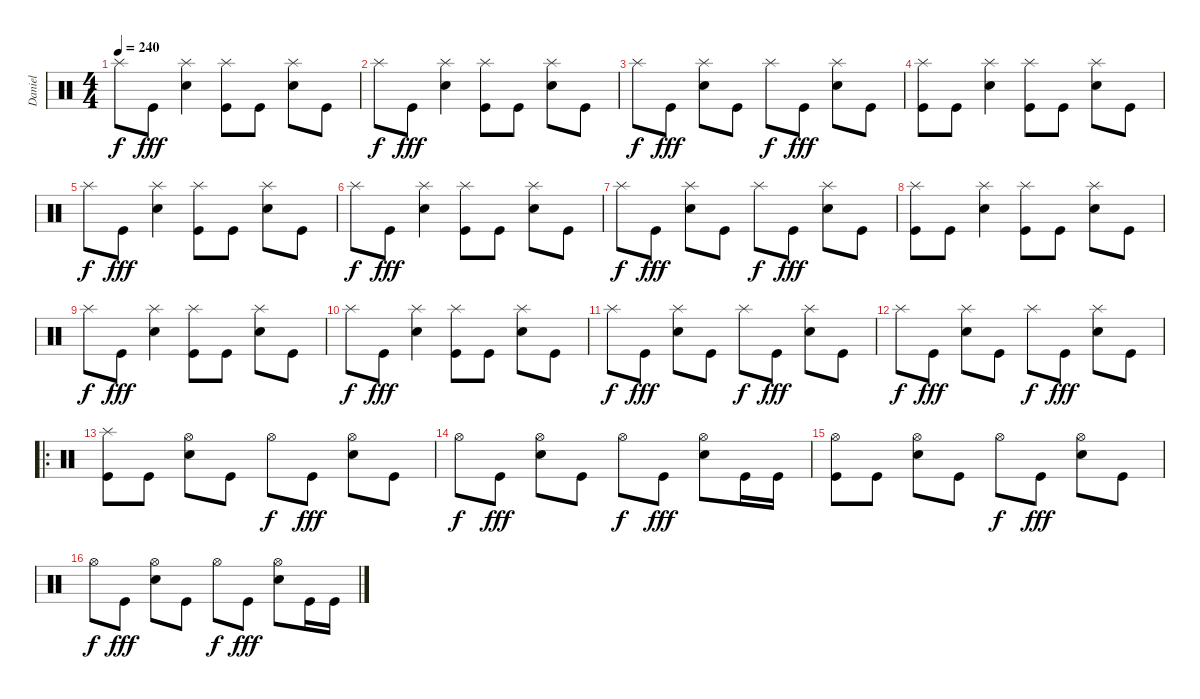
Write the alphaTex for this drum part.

\track ("Daniel" "Daniel") {instrument percussion}
\staff {score}
\articulation defaults
\ts (4 4)
\tempo 240
\clef neutral
\ks c "Splash (hit)".8{dy f} "Kick (hit)".8{dy fff}
("Electric Snare (hit)" "Splash (hit)").4 ("Kick (hit)" "Splash (hit)").8 "Kick (hit)".8 ("Electric Snare (hit)" "Splash (hit)").8 "Kick (hit)".8 |
"Splash (hit)".8{dy f} "Kick (hit)".8{dy fff} ("Electric Snare (hit)" "Splash (hit)").4 ("Kick (hit)" "Splash (hit)").8 "Kick (hit)".8 ("Electric Snare (hit)" "Splash (hit)").8 "Kick (hit)".8 |
"Splash (hit)".8{dy f} "Kick (hit)".8{dy fff} ("Electric Snare (hit)" "Splash (hit)").8 "Kick (hit)".8 "Splash (hit)".8{dy f} "Kick (hit)".8{dy fff} ("Electric Snare (hit)" "Splash (hit)").8 "Kick (hit)".8 |
("Kick (hit)" "Splash (hit)").8 "Kick (hit)".8 ("Electric Snare (hit)" "Splash (hit)").4 ("Kick (hit)" "Splash (hit)").8 "Kick (hit)".8 ("Electric Snare (hit)" "Splash (hit)").8 "Kick (hit)".8 |
"Splash (hit)".8{dy f} "Kick (hit)".8{dy fff} ("Electric Snare (hit)" "Splash (hit)").4 ("Kick (hit)" "Splash (hit)").8 "Kick (hit)".8 ("Electric Snare (hit)" "Splash (hit)").8 "Kick (hit)".8 |
"Splash (hit)".8{dy f} "Kick (hit)".8{dy fff} ("Electric Snare (hit)" "Splash (hit)").4 ("Kick (hit)" "Splash (hit)").8 "Kick (hit)".8 ("Electric Snare (hit)" "Splash (hit)").8 "Kick (hit)".8 |
"Splash (hit)".8{dy f} "Kick (hit)".8{dy fff} ("Electric Snare (hit)" "Splash (hit)").8 "Kick (hit)".8 "Splash (hit)".8{dy f} "Kick (hit)".8{dy fff} ("Electric Snare (hit)" "Splash (hit)").8 "Kick (hit)".8 |
("Kick (hit)" "Splash (hit)").8 "Kick (hit)".8 ("Electric Snare (hit)" "Splash (hit)").4 ("Kick (hit)" "Splash (hit)").8 "Kick (hit)".8 ("Electric Snare (hit)" "Splash (hit)").8 "Kick (hit)".8 |
"Splash (hit)".8{dy f} "Kick (hit)".8{dy fff} ("Electric Snare (hit)" "Splash (hit)").4 ("Kick (hit)" "Splash (hit)").8 "Kick (hit)".8 ("Electric Snare (hit)" "Splash (hit)").8 "Kick (hit)".8 |
"Splash (hit)".8{dy f} "Kick (hit)".8{dy fff} ("Electric Snare (hit)" "Splash (hit)").4 ("Kick (hit)" "Splash (hit)").8 "Kick (hit)".8 ("Electric Snare (hit)" "Splash (hit)").8 "Kick (hit)".8 |
"Splash (hit)".8{dy f} "Kick (hit)".8{dy fff} ("Electric Snare (hit)" "Splash (hit)").8 "Kick (hit)".8 "Splash (hit)".8{dy f} "Kick (hit)".8{dy fff} ("Electric Snare (hit)" "Splash (hit)").8 "Kick (hit)".8 |
"Splash (hit)".8{dy f} "Kick (hit)".8{dy fff} ("Electric Snare (hit)" "Splash (hit)").8 "Kick (hit)".8 "Splash (hit)".8{dy f} "Kick (hit)".8{dy fff} ("Electric Snare (hit)" "Splash (hit)").8 "Kick (hit)".8 |
\ro
("Kick (hit)" "Splash (hit)").8 "Kick (hit)".8 ("Electric Snare (hit)" "Hi-Hat (open)").8 "Kick (hit)".8 "Hi-Hat (open)".8{dy f} "Kick (hit)".8{dy fff} ("Electric Snare (hit)" "Hi-Hat (open)").8 "Kick (hit)".8 |
"Hi-Hat (open)".8{dy f} "Kick (hit)".8{dy fff} ("Electric Snare (hit)" "Hi-Hat (open)").8 "Kick (hit)".8 "Hi-Hat (open)".8{dy f} "Kick (hit)".8{dy fff} ("Electric Snare (hit)" "Hi-Hat (open)").8 "Kick (hit)".16 "Kick (hit)".16 |
("Kick (hit)" "Hi-Hat (open)").8 "Kick (hit)".8 ("Electric Snare (hit)" "Hi-Hat (open)").8 "Kick (hit)".8 "Hi-Hat (open)".8{dy f} "Kick (hit)".8{dy fff} ("Electric Snare (hit)" "Hi-Hat (open)").8 "Kick (hit)".8 |
"Hi-Hat (open)".8{dy f} "Kick (hit)".8{dy fff} ("Electric Snare (hit)" "Hi-Hat (open)").8 "Kick (hit)".8 "Hi-Hat (open)".8{dy f} "Kick (hit)".8{dy fff} ("Electric Snare (hit)" "Hi-Hat (open)").8 "Kick (hit)".16 "Kick (hit)".16
